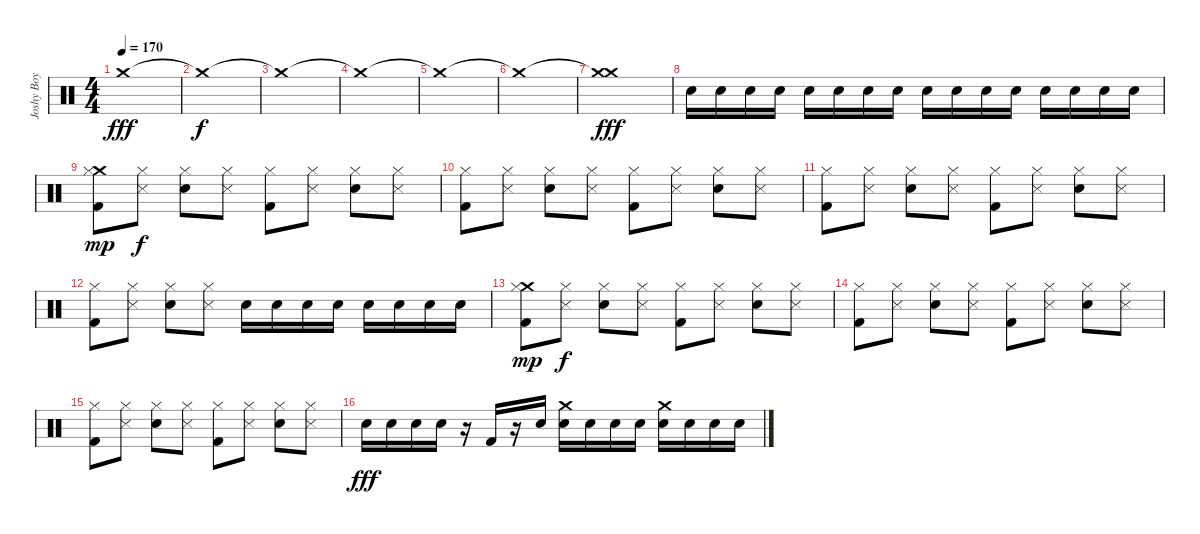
\track ("Joshy Boy" "Joshy Boy") {instrument percussion}
\staff {score}
\articulation defaults
\ts (4 4)
\tempo 170
\clef neutral
\ks c "Crash medium (hit)".1{dy fff}
|
"Crash medium (hit)"{t}.1{dy f} |
"Crash medium (hit)"{t}.1 |
"Crash medium (hit)"{t}.1 |
"Crash medium (hit)"{t}.1 |
"Crash medium (hit)"{t}.1 |
("Crash medium (hit)"{t} "Crash medium (hit)").1{dy fff} |
"Electric Snare (hit)".16 "Electric Snare (hit)".16 "Electric Snare (hit)".16 "Electric Snare (hit)".16 "Electric Snare (hit)".16 "Electric Snare (hit)".16 "Electric Snare (hit)".16 "Electric Snare (hit)".16 "Electric Snare (hit)".16 "Electric Snare (hit)".16 "Electric Snare (hit)".16 "Electric Snare (hit)".16 "Electric Snare (hit)".16 "Electric Snare (hit)".16 "Electric Snare (hit)".16 "Electric Snare (hit)".16 |
("Crash medium (hit)" "Hi-Hat (closed)" "Kick (hit) 2").8{dy mp} ("Hi-Hat (closed)" "Snare (side stick) 3").8{dy f} ("Hi-Hat (closed)" "Electric Snare (hit)").8 ("Hi-Hat (closed)" "Snare (side stick) 3").8 ("Hi-Hat (closed)" "Kick (hit) 2").8 ("Hi-Hat (closed)" "Snare (side stick) 3").8 ("Hi-Hat (closed)" "Electric Snare (hit)").8 ("Hi-Hat (closed)" "Snare (side stick) 3").8 |
("Hi-Hat (closed)" "Kick (hit) 2").8 ("Hi-Hat (closed)" "Snare (side stick) 3").8 ("Hi-Hat (closed)" "Electric Snare (hit)").8 ("Hi-Hat (closed)" "Snare (side stick) 3").8 ("Hi-Hat (closed)" "Kick (hit) 2").8 ("Hi-Hat (closed)" "Snare (side stick) 3").8 ("Hi-Hat (closed)" "Electric Snare (hit)").8 ("Hi-Hat (closed)" "Snare (side stick) 3").8 |
("Hi-Hat (closed)" "Kick (hit) 2").8 ("Hi-Hat (closed)" "Snare (side stick) 3").8 ("Hi-Hat (closed)" "Electric Snare (hit)").8 ("Hi-Hat (closed)" "Snare (side stick) 3").8 ("Hi-Hat (closed)" "Kick (hit) 2").8 ("Hi-Hat (closed)" "Snare (side stick) 3").8 ("Hi-Hat (closed)" "Electric Snare (hit)").8 ("Hi-Hat (closed)" "Snare (side stick) 3").8 |
("Hi-Hat (closed)" "Kick (hit) 2").8 ("Hi-Hat (closed)" "Snare (side stick) 3").8 ("Hi-Hat (closed)" "Electric Snare (hit)").8 ("Hi-Hat (closed)" "Snare (side stick) 3").8 "Electric Snare (hit)".16 "Electric Snare (hit)".16 "Electric Snare (hit)".16 "Electric Snare (hit)".16 "Electric Snare (hit)".16 "Electric Snare (hit)".16 "Electric Snare (hit)".16 "Electric Snare (hit)".16 |
("Crash medium (hit)" "Hi-Hat (closed)" "Kick (hit) 2").8{dy mp} ("Hi-Hat (closed)" "Snare (side stick) 3").8{dy f} ("Hi-Hat (closed)" "Electric Snare (hit)").8 ("Hi-Hat (closed)" "Snare (side stick) 3").8 ("Hi-Hat (closed)" "Kick (hit) 2").8 ("Hi-Hat (closed)" "Snare (side stick) 3").8 ("Hi-Hat (closed)" "Electric Snare (hit)").8 ("Hi-Hat (closed)" "Snare (side stick) 3").8 |
("Hi-Hat (closed)" "Kick (hit) 2").8 ("Hi-Hat (closed)" "Snare (side stick) 3").8 ("Hi-Hat (closed)" "Electric Snare (hit)").8 ("Hi-Hat (closed)" "Snare (side stick) 3").8 ("Hi-Hat (closed)" "Kick (hit) 2").8 ("Hi-Hat (closed)" "Snare (side stick) 3").8 ("Hi-Hat (closed)" "Electric Snare (hit)").8 ("Hi-Hat (closed)" "Snare (side stick) 3").8 |
("Hi-Hat (closed)" "Kick (hit) 2").8 ("Hi-Hat (closed)" "Snare (side stick) 3").8 ("Hi-Hat (closed)" "Electric Snare (hit)").8 ("Hi-Hat (closed)" "Snare (side stick) 3").8 ("Hi-Hat (closed)" "Kick (hit) 2").8 ("Hi-Hat (closed)" "Snare (side stick) 3").8 ("Hi-Hat (closed)" "Electric Snare (hit)").8 ("Hi-Hat (closed)" "Snare (side stick) 3").8 |
"Electric Snare (hit)".16{dy fff} "Electric Snare (hit)".16 "Electric Snare (hit)".16 "Electric Snare (hit)".16 r.16 "Kick (hit) 2".16 r.16 "Electric Snare (hit)".16 ("Crash medium (hit)" "Electric Snare (hit)").16 "Electric Snare (hit)".16 "Electric Snare (hit)".16 "Electric Snare (hit)".16 ("Crash medium (hit)" "Electric Snare (hit)").16 "Electric Snare (hit)".16 "Electric Snare (hit)".16 "Electric Snare (hit)".16
